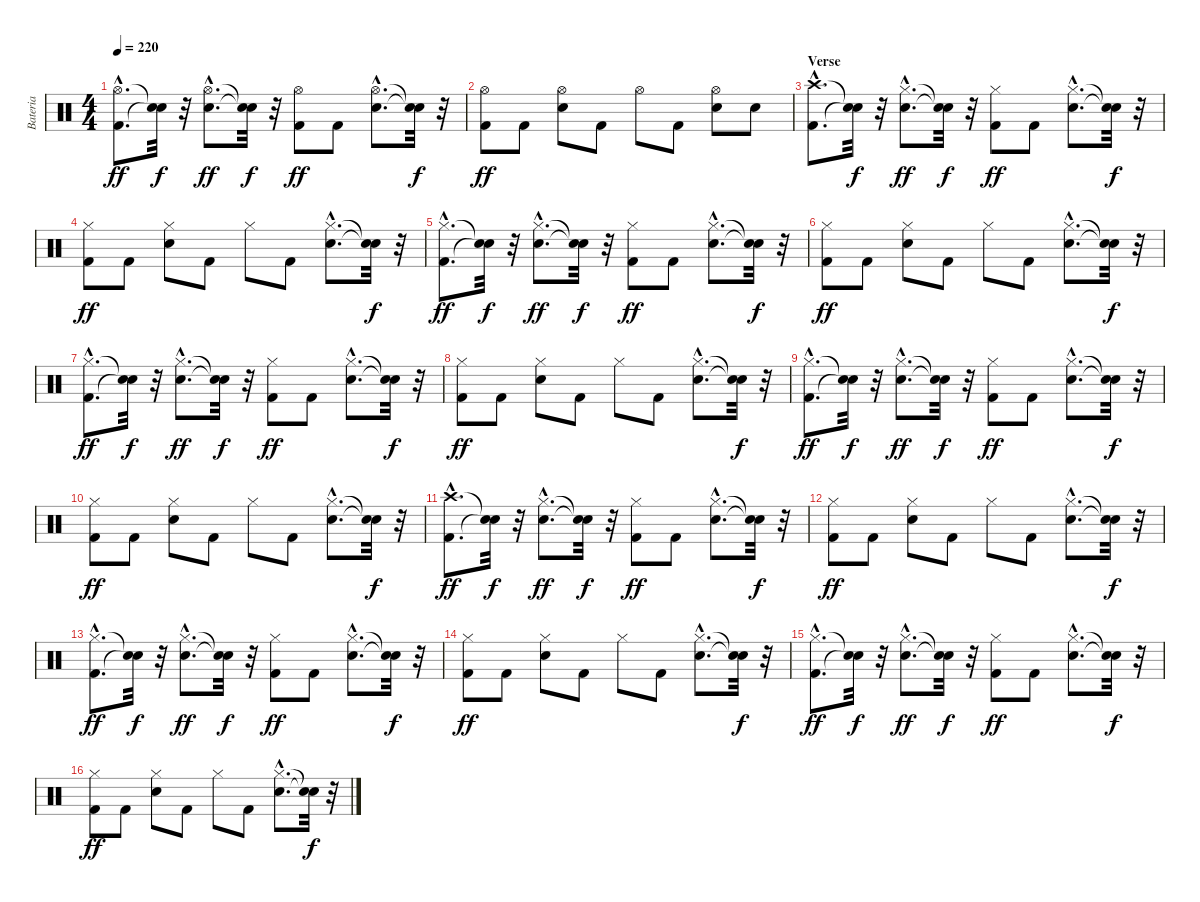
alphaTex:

\track ("Bateria" "Bateria") {instrument percussion}
\staff {score}
\articulation defaults
\ts (4 4)
\tempo 220
\clef neutral
\ks c
("Kick (hit) 2"{hac} "Hi-Hat (open)"{hac}).8{d dy ff} ("Snare (hit)"{t} "Snare (hit)"{t}).32{dy f} r.32 ("Electric Snare (hit)"{hac} "Hi-Hat (open)"{hac}).8{d dy ff} ("Snare (hit)"{t} "Snare (hit)"{t}).32{dy f} r.32 ("Kick (hit) 2" "Hi-Hat (open)").8{dy ff} "Kick (hit) 2".8 ("Electric Snare (hit)"{hac} "Hi-Hat (open)"{hac}).8{d} ("Snare (hit)"{t} "Snare (hit)"{t}).32{dy f} r.32 |
("Kick (hit) 2" "Hi-Hat (open)").8{dy ff} "Kick (hit) 2".8 ("Electric Snare (hit)" "Hi-Hat (open)").8 "Kick (hit) 2".8 "Hi-Hat (open)".8 "Kick (hit) 2".8 ("Electric Snare (hit)" "Hi-Hat (open)").8 "Electric Snare (hit)".8 |
\section ("" "Verse")
("Kick (hit) 2"{hac} "Crash high (hit)"{hac}).8{d} ("Snare (hit)"{t} "Snare (hit)"{t}).32{dy f} r.32 ("Electric Snare (hit)"{hac} "Hi-Hat (closed)"{hac}).8{d dy ff} ("Snare (hit)"{t} "Snare (hit)"{t}).32{dy f} r.32 ("Kick (hit) 2" "Hi-Hat (closed)").8{dy ff} "Kick (hit) 2".8 ("Electric Snare (hit)"{hac} "Hi-Hat (closed)"{hac}).8{d} ("Snare (hit)"{t} "Snare (hit)"{t}).32{dy f} r.32 |
("Kick (hit) 2" "Hi-Hat (closed)").8{dy ff} "Kick (hit) 2".8 ("Electric Snare (hit)" "Hi-Hat (closed)").8 "Kick (hit) 2".8 "Hi-Hat (closed)".8 "Kick (hit) 2".8 ("Electric Snare (hit)"{hac} "Hi-Hat (closed)"{hac}).8{d} ("Snare (hit)"{t} "Snare (hit)"{t}).32{dy f} r.32 |
("Kick (hit) 2"{hac} "Hi-Hat (closed)"{hac}).8{d dy ff} ("Snare (hit)"{t} "Snare (hit)"{t}).32{dy f} r.32 ("Electric Snare (hit)"{hac} "Hi-Hat (closed)"{hac}).8{d dy ff} ("Snare (hit)"{t} "Snare (hit)"{t}).32{dy f} r.32 ("Kick (hit) 2" "Hi-Hat (closed)").8{dy ff} "Kick (hit) 2".8 ("Electric Snare (hit)"{hac} "Hi-Hat (closed)"{hac}).8{d} ("Snare (hit)"{t} "Snare (hit)"{t}).32{dy f} r.32 |
("Kick (hit) 2" "Hi-Hat (closed)").8{dy ff} "Kick (hit) 2".8 ("Electric Snare (hit)" "Hi-Hat (closed)").8 "Kick (hit) 2".8 "Hi-Hat (closed)".8 "Kick (hit) 2".8 ("Electric Snare (hit)"{hac} "Hi-Hat (closed)"{hac}).8{d} ("Snare (hit)"{t} "Snare (hit)"{t}).32{dy f} r.32 |
("Kick (hit) 2"{hac} "Hi-Hat (closed)"{hac}).8{d dy ff} ("Snare (hit)"{t} "Snare (hit)"{t}).32{dy f} r.32 ("Electric Snare (hit)"{hac} "Hi-Hat (closed)"{hac}).8{d dy ff} ("Snare (hit)"{t} "Snare (hit)"{t}).32{dy f} r.32 ("Kick (hit) 2" "Hi-Hat (closed)").8{dy ff} "Kick (hit) 2".8 ("Electric Snare (hit)"{hac} "Hi-Hat (closed)"{hac}).8{d} ("Snare (hit)"{t} "Snare (hit)"{t}).32{dy f} r.32 |
("Kick (hit) 2" "Hi-Hat (closed)").8{dy ff} "Kick (hit) 2".8 ("Electric Snare (hit)" "Hi-Hat (closed)").8 "Kick (hit) 2".8 "Hi-Hat (closed)".8 "Kick (hit) 2".8 ("Electric Snare (hit)"{hac} "Hi-Hat (closed)"{hac}).8{d} ("Snare (hit)"{t} "Snare (hit)"{t}).32{dy f} r.32 |
("Kick (hit) 2"{hac} "Hi-Hat (closed)"{hac}).8{d dy ff} ("Snare (hit)"{t} "Snare (hit)"{t}).32{dy f} r.32 ("Electric Snare (hit)"{hac} "Hi-Hat (closed)"{hac}).8{d dy ff} ("Snare (hit)"{t} "Snare (hit)"{t}).32{dy f} r.32 ("Kick (hit) 2" "Hi-Hat (closed)").8{dy ff} "Kick (hit) 2".8 ("Electric Snare (hit)"{hac} "Hi-Hat (closed)"{hac}).8{d} ("Snare (hit)"{t} "Snare (hit)"{t}).32{dy f} r.32 |
("Kick (hit) 2" "Hi-Hat (closed)").8{dy ff} "Kick (hit) 2".8 ("Electric Snare (hit)" "Hi-Hat (closed)").8 "Kick (hit) 2".8 "Hi-Hat (closed)".8 "Kick (hit) 2".8 ("Electric Snare (hit)"{hac} "Hi-Hat (closed)"{hac}).8{d} ("Snare (hit)"{t} "Snare (hit)"{t}).32{dy f} r.32 |
("Kick (hit) 2"{hac} "Crash high (hit)"{hac}).8{d dy ff} ("Snare (hit)"{t} "Snare (hit)"{t}).32{dy f} r.32 ("Electric Snare (hit)"{hac} "Hi-Hat (closed)"{hac}).8{d dy ff} ("Snare (hit)"{t} "Snare (hit)"{t}).32{dy f} r.32 ("Kick (hit) 2" "Hi-Hat (closed)").8{dy ff} "Kick (hit) 2".8 ("Electric Snare (hit)"{hac} "Hi-Hat (closed)"{hac}).8{d} ("Snare (hit)"{t} "Snare (hit)"{t}).32{dy f} r.32 |
("Kick (hit) 2" "Hi-Hat (closed)").8{dy ff} "Kick (hit) 2".8 ("Electric Snare (hit)" "Hi-Hat (closed)").8 "Kick (hit) 2".8 "Hi-Hat (closed)".8 "Kick (hit) 2".8 ("Electric Snare (hit)"{hac} "Hi-Hat (closed)"{hac}).8{d} ("Snare (hit)"{t} "Snare (hit)"{t}).32{dy f} r.32 |
("Kick (hit) 2"{hac} "Hi-Hat (closed)"{hac}).8{d dy ff} ("Snare (hit)"{t} "Snare (hit)"{t}).32{dy f} r.32 ("Electric Snare (hit)"{hac} "Hi-Hat (closed)"{hac}).8{d dy ff} ("Snare (hit)"{t} "Snare (hit)"{t}).32{dy f} r.32 ("Kick (hit) 2" "Hi-Hat (closed)").8{dy ff} "Kick (hit) 2".8 ("Electric Snare (hit)"{hac} "Hi-Hat (closed)"{hac}).8{d} ("Snare (hit)"{t} "Snare (hit)"{t}).32{dy f} r.32 |
("Kick (hit) 2" "Hi-Hat (closed)").8{dy ff} "Kick (hit) 2".8 ("Electric Snare (hit)" "Hi-Hat (closed)").8 "Kick (hit) 2".8 "Hi-Hat (closed)".8 "Kick (hit) 2".8 ("Electric Snare (hit)"{hac} "Hi-Hat (closed)"{hac}).8{d} ("Snare (hit)"{t} "Snare (hit)"{t}).32{dy f} r.32 |
("Kick (hit) 2"{hac} "Hi-Hat (closed)"{hac}).8{d dy ff} ("Snare (hit)"{t} "Snare (hit)"{t}).32{dy f} r.32 ("Electric Snare (hit)"{hac} "Hi-Hat (closed)"{hac}).8{d dy ff} ("Snare (hit)"{t} "Snare (hit)"{t}).32{dy f} r.32 ("Kick (hit) 2" "Hi-Hat (closed)").8{dy ff} "Kick (hit) 2".8 ("Electric Snare (hit)"{hac} "Hi-Hat (closed)"{hac}).8{d} ("Snare (hit)"{t} "Snare (hit)"{t}).32{dy f} r.32 |
("Kick (hit) 2" "Hi-Hat (closed)").8{dy ff} "Kick (hit) 2".8 ("Electric Snare (hit)" "Hi-Hat (closed)").8 "Kick (hit) 2".8 "Hi-Hat (closed)".8 "Kick (hit) 2".8 ("Electric Snare (hit)"{hac} "Hi-Hat (closed)"{hac}).8{d} ("Snare (hit)"{t} "Snare (hit)"{t}).32{dy f} r.32
